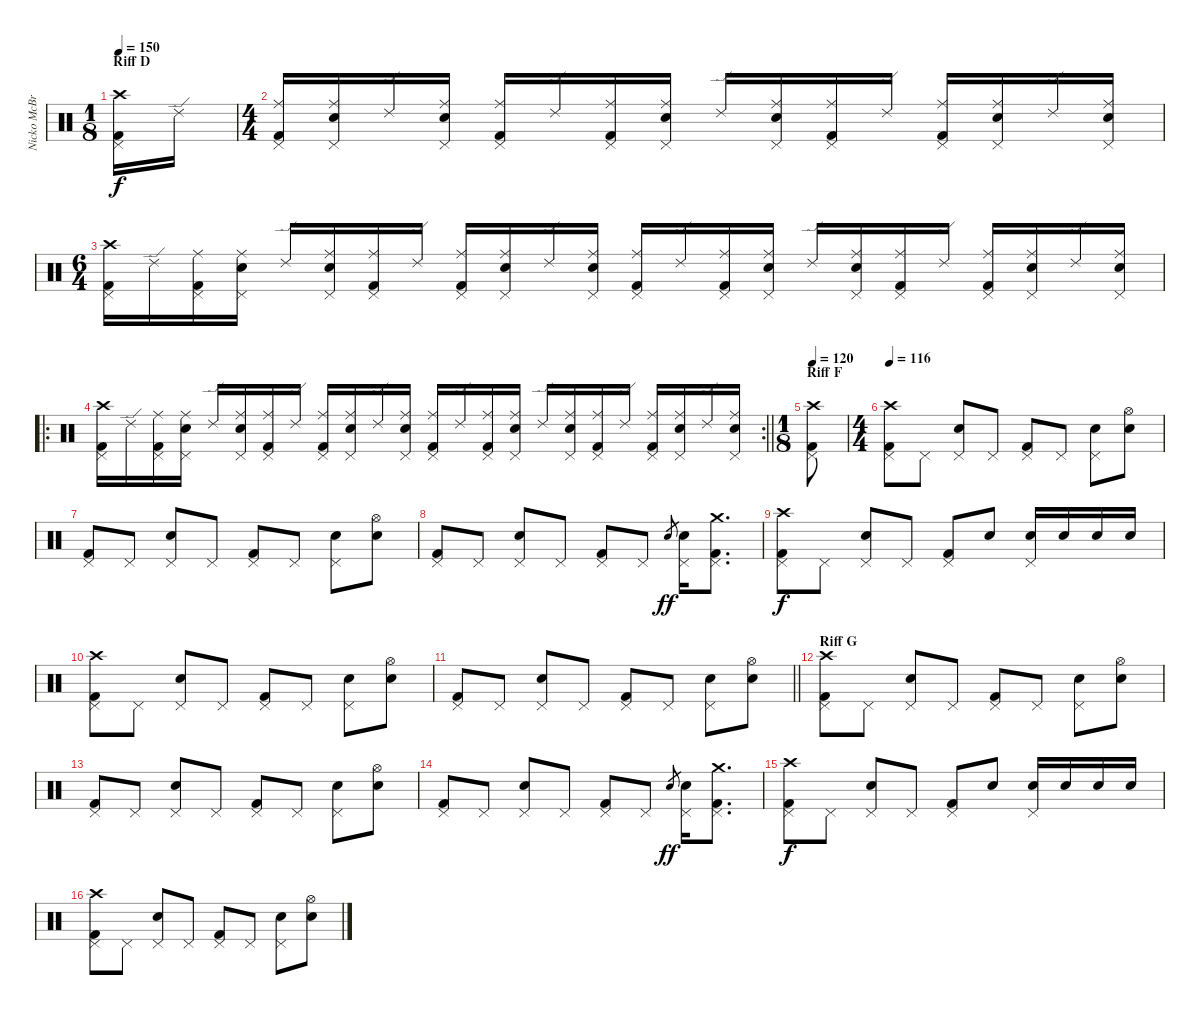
\track ("Nicko McBrain" "Nicko McBr") {instrument percussion}
\staff {score}
\articulation defaults
\ts (1 8)
\section ("" "Riff D")
\tempo 150
\clef neutral
\ks c
("Kick (hit) 2" "Pedal Hi-Hat (hit)" "Crash high (hit)").16{dy f} "Ride (edge) 2".16 |
\ts (4 4)
("Kick (hit) 2" "Pedal Hi-Hat (hit)" "Ride (middle)").16 ("Snare (hit) 2" "Pedal Hi-Hat (hit)" "Ride (middle)").16 "Ride (edge) 2".16 ("Snare (hit) 2" "Pedal Hi-Hat (hit)" "Ride (middle)").16 ("Kick (hit) 2" "Pedal Hi-Hat (hit)" "Ride (middle)").16 "Ride (edge) 2".16 ("Kick (hit) 2" "Pedal Hi-Hat (hit)" "Ride (middle)").16 ("Snare (hit) 2" "Pedal Hi-Hat (hit)" "Ride (middle)").16 "Ride (edge) 2".16 ("Snare (hit) 2" "Pedal Hi-Hat (hit)" "Ride (middle)").16 ("Kick (hit) 2" "Pedal Hi-Hat (hit)" "Ride (middle)").16 "Ride (edge) 2".16 ("Kick (hit) 2" "Pedal Hi-Hat (hit)" "Ride (middle)").16 ("Snare (hit) 2" "Pedal Hi-Hat (hit)" "Ride (middle)").16 "Ride (edge) 2".16 ("Snare (hit) 2" "Pedal Hi-Hat (hit)" "Ride (middle)").16 |
\ts (6 4)
("Kick (hit) 2" "Pedal Hi-Hat (hit)" "Crash high (hit)").16 "Ride (edge) 2".16 ("Kick (hit) 2" "Pedal Hi-Hat (hit)" "Ride (middle)").16 ("Snare (hit) 2" "Pedal Hi-Hat (hit)" "Ride (middle)").16 "Ride (edge) 2".16 ("Snare (hit) 2" "Pedal Hi-Hat (hit)" "Ride (middle)").16 ("Kick (hit) 2" "Pedal Hi-Hat (hit)" "Ride (middle)").16 "Ride (edge) 2".16 ("Kick (hit) 2" "Pedal Hi-Hat (hit)" "Ride (middle)").16 ("Snare (hit) 2" "Pedal Hi-Hat (hit)" "Ride (middle)").16 "Ride (edge) 2".16 ("Snare (hit) 2" "Pedal Hi-Hat (hit)" "Ride (middle)").16 ("Kick (hit) 2" "Pedal Hi-Hat (hit)" "Ride (middle)").16 "Ride (edge) 2".16 ("Kick (hit) 2" "Pedal Hi-Hat (hit)" "Ride (middle)").16 ("Snare (hit) 2" "Pedal Hi-Hat (hit)" "Ride (middle)").16 "Ride (edge) 2".16 ("Snare (hit) 2" "Pedal Hi-Hat (hit)" "Ride (middle)").16 ("Kick (hit) 2" "Pedal Hi-Hat (hit)" "Ride (middle)").16 "Ride (edge) 2".16 ("Kick (hit) 2" "Pedal Hi-Hat (hit)" "Ride (middle)").16 ("Snare (hit) 2" "Pedal Hi-Hat (hit)" "Ride (middle)").16 "Ride (edge) 2".16 ("Snare (hit) 2" "Pedal Hi-Hat (hit)" "Ride (middle)").16 |
\ro
\rc 2
\barLineRight lightlight
("Kick (hit) 2" "Pedal Hi-Hat (hit)" "Crash high (hit)").16 "Ride (edge) 2".16 ("Kick (hit) 2" "Pedal Hi-Hat (hit)" "Ride (middle)").16 ("Snare (hit) 2" "Pedal Hi-Hat (hit)" "Ride (middle)").16 "Ride (edge) 2".16 ("Snare (hit) 2" "Pedal Hi-Hat (hit)" "Ride (middle)").16 ("Kick (hit) 2" "Pedal Hi-Hat (hit)" "Ride (middle)").16 "Ride (edge) 2".16 ("Kick (hit) 2" "Pedal Hi-Hat (hit)" "Ride (middle)").16 ("Snare (hit) 2" "Pedal Hi-Hat (hit)" "Ride (middle)").16 "Ride (edge) 2".16 ("Snare (hit) 2" "Pedal Hi-Hat (hit)" "Ride (middle)").16 ("Kick (hit) 2" "Pedal Hi-Hat (hit)" "Ride (middle)").16 "Ride (edge) 2".16 ("Kick (hit) 2" "Pedal Hi-Hat (hit)" "Ride (middle)").16 ("Snare (hit) 2" "Pedal Hi-Hat (hit)" "Ride (middle)").16 "Ride (edge) 2".16 ("Snare (hit) 2" "Pedal Hi-Hat (hit)" "Ride (middle)").16 ("Kick (hit) 2" "Pedal Hi-Hat (hit)" "Ride (middle)").16 "Ride (edge) 2".16 ("Kick (hit) 2" "Pedal Hi-Hat (hit)" "Ride (middle)").16 ("Snare (hit) 2" "Pedal Hi-Hat (hit)" "Ride (middle)").16 "Ride (edge) 2".16 ("Snare (hit) 2" "Pedal Hi-Hat (hit)" "Ride (middle)").16 |
\ts (1 8)
\section ("" "Riff F")
\tempo 120
("Kick (hit) 2" "Pedal Hi-Hat (hit)" "Crash high (hit)").8 |
\ts (4 4)
\tempo 116
("Kick (hit) 2" "Pedal Hi-Hat (hit)" "Crash high (hit)").8 "Pedal Hi-Hat (hit)".8 ("Snare (hit) 2" "Pedal Hi-Hat (hit)").8 "Pedal Hi-Hat (hit)".8 ("Kick (hit) 2" "Pedal Hi-Hat (hit)").8 "Pedal Hi-Hat (hit)".8 ("Snare (hit) 2" "Pedal Hi-Hat (hit)").8 ("Snare (hit) 2" "Hi-Hat (open)").8 |
("Kick (hit) 2" "Pedal Hi-Hat (hit)").8 "Pedal Hi-Hat (hit)".8 ("Snare (hit) 2" "Pedal Hi-Hat (hit)").8 "Pedal Hi-Hat (hit)".8 ("Kick (hit) 2" "Pedal Hi-Hat (hit)").8 "Pedal Hi-Hat (hit)".8 ("Snare (hit) 2" "Pedal Hi-Hat (hit)").8 ("Snare (hit) 2" "Hi-Hat (open)").8 |
("Kick (hit) 2" "Pedal Hi-Hat (hit)").8 "Pedal Hi-Hat (hit)".8 ("Snare (hit) 2" "Pedal Hi-Hat (hit)").8 "Pedal Hi-Hat (hit)".8 ("Kick (hit) 2" "Pedal Hi-Hat (hit)").8 "Pedal Hi-Hat (hit)".8 "Snare (hit) 2".8{gr dy ff} ("Snare (hit) 2" "Pedal Hi-Hat (hit)").16 ("Pedal Hi-Hat (hit)" "Crash medium (hit)" "Kick (hit) 2").8{d} |
("Kick (hit) 2" "Pedal Hi-Hat (hit)" "Crash high (hit)").8{dy f} "Pedal Hi-Hat (hit)".8 ("Snare (hit) 2" "Pedal Hi-Hat (hit)").8 "Pedal Hi-Hat (hit)".8 ("Kick (hit) 2" "Pedal Hi-Hat (hit)").8 "Snare (hit) 2".8 ("Snare (hit) 2" "Pedal Hi-Hat (hit)").16 "Snare (hit) 2".16 "Snare (hit) 2".16 "Snare (hit) 2".16 |
("Kick (hit) 2" "Pedal Hi-Hat (hit)" "Crash high (hit)").8 "Pedal Hi-Hat (hit)".8 ("Snare (hit) 2" "Pedal Hi-Hat (hit)").8 "Pedal Hi-Hat (hit)".8 ("Kick (hit) 2" "Pedal Hi-Hat (hit)").8 "Pedal Hi-Hat (hit)".8 ("Snare (hit) 2" "Pedal Hi-Hat (hit)").8 ("Snare (hit) 2" "Hi-Hat (open)").8 |
\barLineRight lightlight
("Kick (hit) 2" "Pedal Hi-Hat (hit)").8 "Pedal Hi-Hat (hit)".8 ("Snare (hit) 2" "Pedal Hi-Hat (hit)").8 "Pedal Hi-Hat (hit)".8 ("Kick (hit) 2" "Pedal Hi-Hat (hit)").8 "Pedal Hi-Hat (hit)".8 ("Snare (hit) 2" "Pedal Hi-Hat (hit)").8 ("Snare (hit) 2" "Hi-Hat (open)").8 |
\section ("" "Riff G")
("Kick (hit) 2" "Pedal Hi-Hat (hit)" "Crash high (hit)").8 "Pedal Hi-Hat (hit)".8 ("Snare (hit) 2" "Pedal Hi-Hat (hit)").8 "Pedal Hi-Hat (hit)".8 ("Kick (hit) 2" "Pedal Hi-Hat (hit)").8 "Pedal Hi-Hat (hit)".8 ("Snare (hit) 2" "Pedal Hi-Hat (hit)").8 ("Snare (hit) 2" "Hi-Hat (open)").8 |
("Kick (hit) 2" "Pedal Hi-Hat (hit)").8 "Pedal Hi-Hat (hit)".8 ("Snare (hit) 2" "Pedal Hi-Hat (hit)").8 "Pedal Hi-Hat (hit)".8 ("Kick (hit) 2" "Pedal Hi-Hat (hit)").8 "Pedal Hi-Hat (hit)".8 ("Snare (hit) 2" "Pedal Hi-Hat (hit)").8 ("Snare (hit) 2" "Hi-Hat (open)").8 |
("Kick (hit) 2" "Pedal Hi-Hat (hit)").8 "Pedal Hi-Hat (hit)".8 ("Snare (hit) 2" "Pedal Hi-Hat (hit)").8 "Pedal Hi-Hat (hit)".8 ("Kick (hit) 2" "Pedal Hi-Hat (hit)").8 "Pedal Hi-Hat (hit)".8 "Snare (hit) 2".8{gr dy ff} ("Snare (hit) 2" "Pedal Hi-Hat (hit)").16 ("Pedal Hi-Hat (hit)" "Crash medium (hit)" "Kick (hit) 2").8{d} |
("Kick (hit) 2" "Pedal Hi-Hat (hit)" "Crash high (hit)").8{dy f} "Pedal Hi-Hat (hit)".8 ("Snare (hit) 2" "Pedal Hi-Hat (hit)").8 "Pedal Hi-Hat (hit)".8 ("Kick (hit) 2" "Pedal Hi-Hat (hit)").8 "Snare (hit) 2".8 ("Snare (hit) 2" "Pedal Hi-Hat (hit)").16 "Snare (hit) 2".16 "Snare (hit) 2".16 "Snare (hit) 2".16 |
("Kick (hit) 2" "Pedal Hi-Hat (hit)" "Crash high (hit)").8 "Pedal Hi-Hat (hit)".8 ("Snare (hit) 2" "Pedal Hi-Hat (hit)").8 "Pedal Hi-Hat (hit)".8 ("Kick (hit) 2" "Pedal Hi-Hat (hit)").8 "Pedal Hi-Hat (hit)".8 ("Snare (hit) 2" "Pedal Hi-Hat (hit)").8 ("Snare (hit) 2" "Hi-Hat (open)").8
